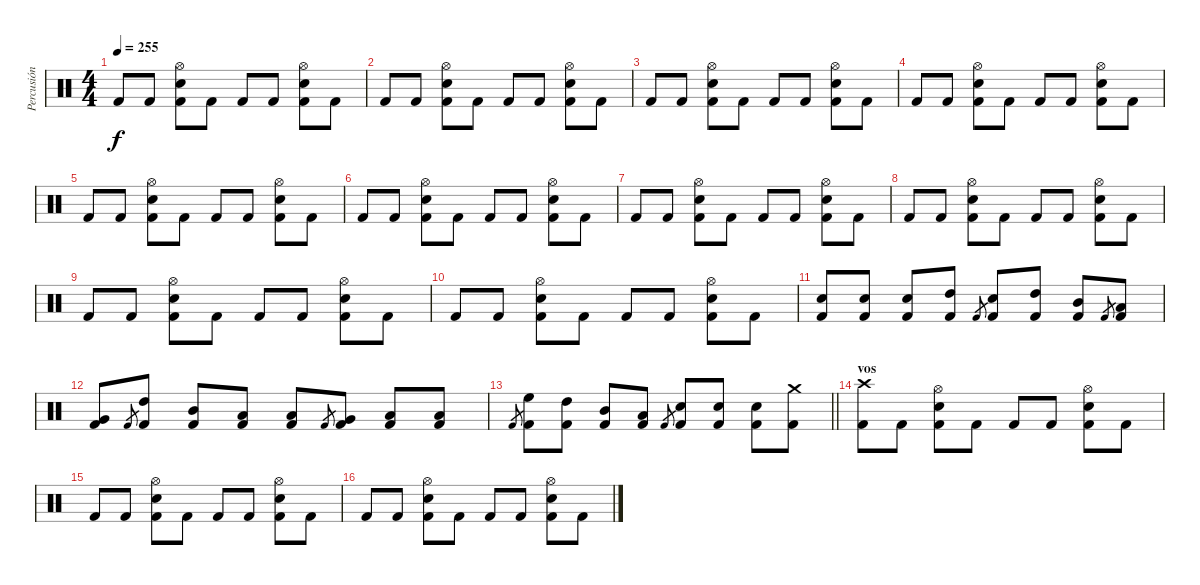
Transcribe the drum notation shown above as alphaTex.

\track ("Percusión" "Percusión") {instrument percussion}
\staff {score}
\articulation defaults
\ts (4 4)
\tempo 255
\clef neutral
\ks c "Kick (hit) 2".8{dy f} "Kick (hit) 2".8
("Kick (hit) 2" "Electric Snare (hit)" "Hi-Hat (open)").8 "Kick (hit) 2".8 "Kick (hit) 2".8 "Kick (hit) 2".8 ("Kick (hit) 2" "Electric Snare (hit)" "Hi-Hat (open)").8 "Kick (hit) 2".8 |
"Kick (hit) 2".8 "Kick (hit) 2".8 ("Kick (hit) 2" "Electric Snare (hit)" "Hi-Hat (open)").8 "Kick (hit) 2".8 "Kick (hit) 2".8 "Kick (hit) 2".8 ("Kick (hit) 2" "Electric Snare (hit)" "Hi-Hat (open)").8 "Kick (hit) 2".8 |
"Kick (hit) 2".8 "Kick (hit) 2".8 ("Kick (hit) 2" "Electric Snare (hit)" "Hi-Hat (open)").8 "Kick (hit) 2".8 "Kick (hit) 2".8 "Kick (hit) 2".8 ("Kick (hit) 2" "Electric Snare (hit)" "Hi-Hat (open)").8 "Kick (hit) 2".8 |
"Kick (hit) 2".8 "Kick (hit) 2".8 ("Kick (hit) 2" "Electric Snare (hit)" "Hi-Hat (open)").8 "Kick (hit) 2".8 "Kick (hit) 2".8 "Kick (hit) 2".8 ("Kick (hit) 2" "Electric Snare (hit)" "Hi-Hat (open)").8 "Kick (hit) 2".8 |
"Kick (hit) 2".8 "Kick (hit) 2".8 ("Kick (hit) 2" "Electric Snare (hit)" "Hi-Hat (open)").8 "Kick (hit) 2".8 "Kick (hit) 2".8 "Kick (hit) 2".8 ("Kick (hit) 2" "Electric Snare (hit)" "Hi-Hat (open)").8 "Kick (hit) 2".8 |
"Kick (hit) 2".8 "Kick (hit) 2".8 ("Kick (hit) 2" "Electric Snare (hit)" "Hi-Hat (open)").8 "Kick (hit) 2".8 "Kick (hit) 2".8 "Kick (hit) 2".8 ("Kick (hit) 2" "Electric Snare (hit)" "Hi-Hat (open)").8 "Kick (hit) 2".8 |
"Kick (hit) 2".8 "Kick (hit) 2".8 ("Kick (hit) 2" "Electric Snare (hit)" "Hi-Hat (open)").8 "Kick (hit) 2".8 "Kick (hit) 2".8 "Kick (hit) 2".8 ("Kick (hit) 2" "Electric Snare (hit)" "Hi-Hat (open)").8 "Kick (hit) 2".8 |
"Kick (hit) 2".8 "Kick (hit) 2".8 ("Kick (hit) 2" "Electric Snare (hit)" "Hi-Hat (open)").8 "Kick (hit) 2".8 "Kick (hit) 2".8 "Kick (hit) 2".8 ("Kick (hit) 2" "Electric Snare (hit)" "Hi-Hat (open)").8 "Kick (hit) 2".8 |
"Kick (hit) 2".8 "Kick (hit) 2".8 ("Kick (hit) 2" "Electric Snare (hit)" "Hi-Hat (open)").8 "Kick (hit) 2".8 "Kick (hit) 2".8 "Kick (hit) 2".8 ("Kick (hit) 2" "Electric Snare (hit)" "Hi-Hat (open)").8 "Kick (hit) 2".8 |
"Kick (hit) 2".8 "Kick (hit) 2".8 ("Kick (hit) 2" "Electric Snare (hit)" "Hi-Hat (open)").8 "Kick (hit) 2".8 "Kick (hit) 2".8 "Kick (hit) 2".8 ("Kick (hit) 2" "Electric Snare (hit)" "Hi-Hat (open)").8 "Kick (hit) 2".8 |
("Kick (hit) 2" "Electric Snare (hit)").8 ("Kick (hit) 2" "Electric Snare (hit)").8 ("Kick (hit) 2" "Electric Snare (hit)").8 ("Kick (hit) 2" "High Tom (hit)").8 "Kick (hit) 2".8{gr} ("Kick (hit) 2" "Electric Snare (hit)").8 ("Kick (hit) 2" "High Tom (hit)").8 ("Kick (hit) 2" "Mid Tom (hit)").8 "Kick (hit) 2".8{gr} ("Kick (hit) 2" "Low Tom (hit)").8 |
("Kick (hit) 2" "Very Low Tom (hit)").8 "Kick (hit) 2".8{gr} ("Kick (hit) 2" "High Tom (hit)").8 ("Kick (hit) 2" "Mid Tom (hit)").8 ("Kick (hit) 2" "Low Tom (hit)").8 ("Kick (hit) 2" "Low Tom (hit)").8 "Kick (hit) 2".8{gr} ("Kick (hit) 2" "Very Low Tom (hit)").8 ("Kick (hit) 2" "Low Floor Tom (hit)").8 ("Kick (hit) 2" "Low Floor Tom (hit)").8 |
\barLineRight lightlight "Kick (hit) 2".8{gr}
("Kick (hit) 2" "High Floor Tom (hit)").8 ("Kick (hit) 2" "High Tom (hit)").8 ("Kick (hit) 2" "Mid Tom (hit)").8 ("Kick (hit) 2" "Low Tom (hit)").8 "Kick (hit) 2".8{gr} ("Kick (hit) 2" "Electric Snare (hit)").8 ("Kick (hit) 2" "Electric Snare (hit)").8 ("Kick (hit) 2" "Electric Snare (hit)").8 ("Kick (hit) 2" "Crash medium (hit)").8 |
\section ("" "vos")
("Kick (hit) 2" "Crash high (hit)").8 "Kick (hit) 2".8 ("Kick (hit) 2" "Electric Snare (hit)" "Hi-Hat (open)").8 "Kick (hit) 2".8 "Kick (hit) 2".8 "Kick (hit) 2".8 ("Kick (hit) 2" "Electric Snare (hit)" "Hi-Hat (open)").8 "Kick (hit) 2".8 |
"Kick (hit) 2".8 "Kick (hit) 2".8 ("Kick (hit) 2" "Electric Snare (hit)" "Hi-Hat (open)").8 "Kick (hit) 2".8 "Kick (hit) 2".8 "Kick (hit) 2".8 ("Kick (hit) 2" "Electric Snare (hit)" "Hi-Hat (open)").8 "Kick (hit) 2".8 |
"Kick (hit) 2".8 "Kick (hit) 2".8 ("Kick (hit) 2" "Electric Snare (hit)" "Hi-Hat (open)").8 "Kick (hit) 2".8 "Kick (hit) 2".8 "Kick (hit) 2".8 ("Kick (hit) 2" "Electric Snare (hit)" "Hi-Hat (open)").8 "Kick (hit) 2".8
